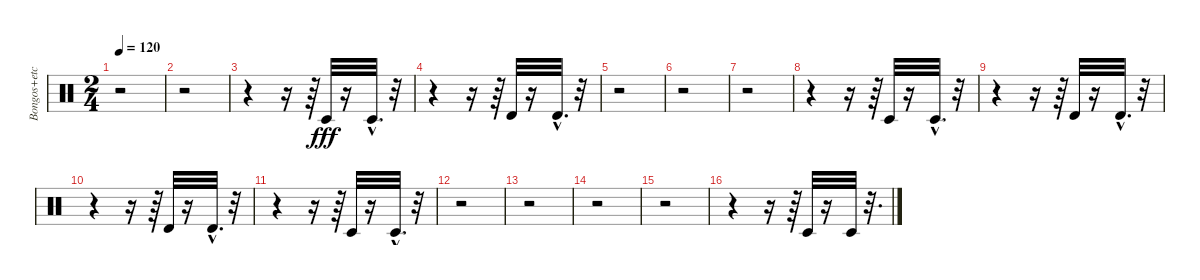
\track ("Bongos+etc" "Bongos+etc") {instrument percussion}
\staff {score}
\articulation defaults
\ts (2 4)
\tempo 120
\clef neutral
\ks c
r.2{dy fff} |
r.2 |
r.4 r.16 r.64 "Timbale low (hit)".32 r.16 "Timbale low (hit)"{hac}.32{d} r.32 |
r.4 r.16 r.64 "Timbale high (hit)".32 r.16 "Timbale high (hit)"{hac}.32{d} r.32 |
r.2 |
r.2 |
r.2 |
r.4 r.16 r.64 "Timbale low (hit)".32 r.16 "Timbale low (hit)"{hac}.32{d} r.32 |
r.4 r.16 r.64 "Timbale high (hit)".32 r.16 "Timbale high (hit)"{hac}.32{d} r.32 |
r.4 r.16 r.64 "Timbale high (hit)".32 r.16 "Timbale high (hit)"{hac}.32{d} r.32 |
r.4 r.16 r.64 "Timbale low (hit)".32 r.16 "Timbale low (hit)"{hac}.32{d} r.32 |
r.2 |
r.2 |
r.2 |
r.2 |
r.4 r.16 r.64 "Timbale low (hit)".32 r.16 "Timbale low (hit)".32 r.32{d}
